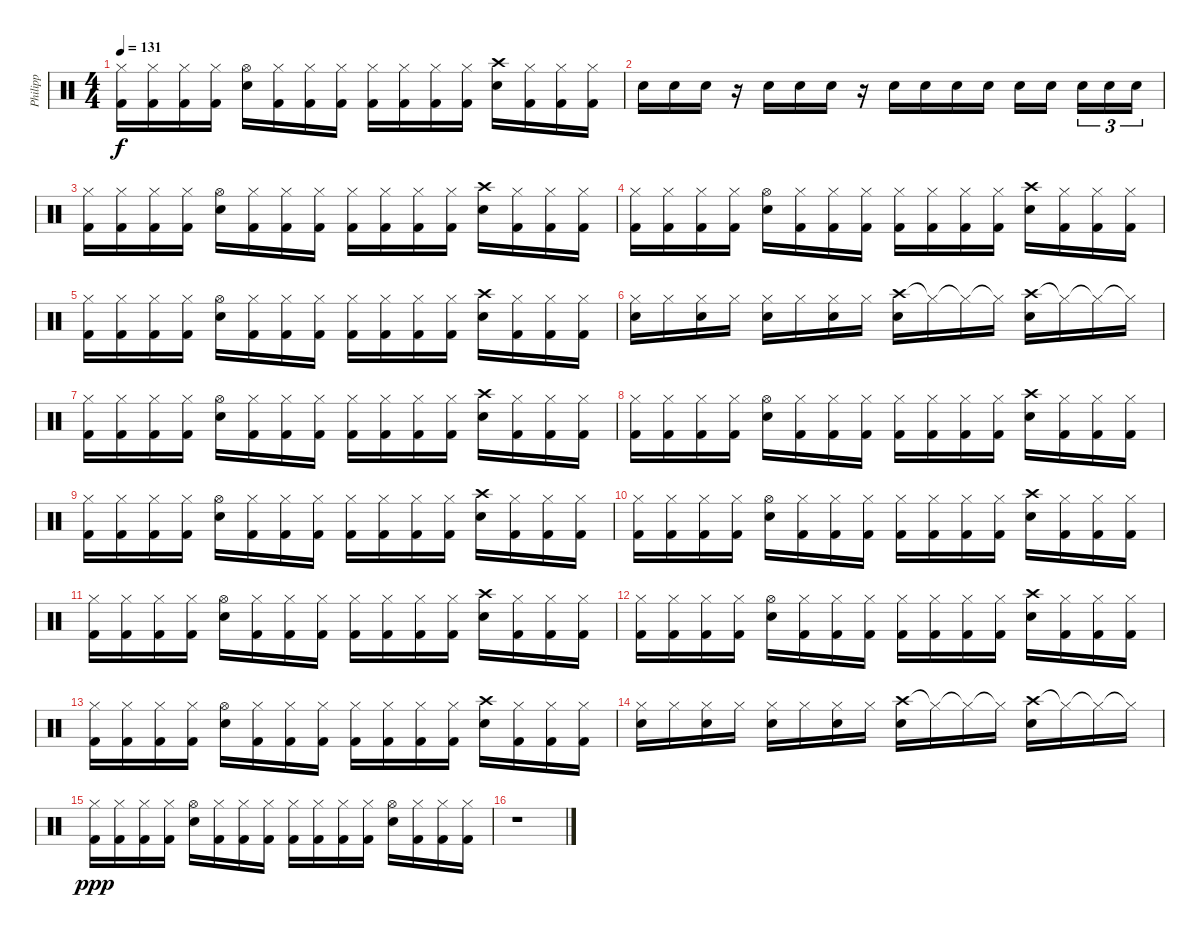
\track ("Philipp" "Philipp") {instrument percussion}
\staff {score}
\articulation defaults
\ts (4 4)
\tempo 131
\clef neutral
\ks c
("Hi-Hat (closed)" "Kick (hit) 2").16{dy f} ("Hi-Hat (closed)" "Kick (hit) 2").16 ("Hi-Hat (closed)" "Kick (hit) 2").16 ("Hi-Hat (closed)" "Kick (hit) 2").16 ("Hi-Hat (open)" "Electric Snare (hit)").16 ("Hi-Hat (closed)" "Kick (hit) 2").16 ("Hi-Hat (closed)" "Kick (hit) 2").16 ("Hi-Hat (closed)" "Kick (hit) 2").16 ("Hi-Hat (closed)" "Kick (hit) 2").16 ("Hi-Hat (closed)" "Kick (hit) 2").16 ("Hi-Hat (closed)" "Kick (hit) 2").16 ("Hi-Hat (closed)" "Kick (hit) 2").16 ("Crash high (hit)" "Electric Snare (hit)").16 ("Hi-Hat (closed)" "Kick (hit) 2").16 ("Hi-Hat (closed)" "Kick (hit) 2").16 ("Hi-Hat (closed)" "Kick (hit) 2").16 |
"Electric Snare (hit)".16 "Electric Snare (hit)".16 "Electric Snare (hit)".16 r.16 "Electric Snare (hit)".16 "Electric Snare (hit)".16 "Electric Snare (hit)".16 r.16 "Electric Snare (hit)".16 "Electric Snare (hit)".16 "Electric Snare (hit)".16 "Electric Snare (hit)".16 "Electric Snare (hit)".16 "Electric Snare (hit)".16 "Electric Snare (hit)".16{tu (3 2)} "Electric Snare (hit)".16{tu (3 2)} "Electric Snare (hit)".16{tu (3 2)} |
("Hi-Hat (closed)" "Kick (hit) 2").16 ("Hi-Hat (closed)" "Kick (hit) 2").16 ("Hi-Hat (closed)" "Kick (hit) 2").16 ("Hi-Hat (closed)" "Kick (hit) 2").16 ("Hi-Hat (open)" "Electric Snare (hit)").16 ("Hi-Hat (closed)" "Kick (hit) 2").16 ("Hi-Hat (closed)" "Kick (hit) 2").16 ("Hi-Hat (closed)" "Kick (hit) 2").16 ("Hi-Hat (closed)" "Kick (hit) 2").16 ("Hi-Hat (closed)" "Kick (hit) 2").16 ("Hi-Hat (closed)" "Kick (hit) 2").16 ("Hi-Hat (closed)" "Kick (hit) 2").16 ("Crash high (hit)" "Electric Snare (hit)").16 ("Hi-Hat (closed)" "Kick (hit) 2").16 ("Hi-Hat (closed)" "Kick (hit) 2").16 ("Hi-Hat (closed)" "Kick (hit) 2").16 |
("Hi-Hat (closed)" "Kick (hit) 2").16 ("Hi-Hat (closed)" "Kick (hit) 2").16 ("Hi-Hat (closed)" "Kick (hit) 2").16 ("Hi-Hat (closed)" "Kick (hit) 2").16 ("Hi-Hat (open)" "Electric Snare (hit)").16 ("Hi-Hat (closed)" "Kick (hit) 2").16 ("Hi-Hat (closed)" "Kick (hit) 2").16 ("Hi-Hat (closed)" "Kick (hit) 2").16 ("Hi-Hat (closed)" "Kick (hit) 2").16 ("Hi-Hat (closed)" "Kick (hit) 2").16 ("Hi-Hat (closed)" "Kick (hit) 2").16 ("Hi-Hat (closed)" "Kick (hit) 2").16 ("Crash high (hit)" "Electric Snare (hit)").16 ("Hi-Hat (closed)" "Kick (hit) 2").16 ("Hi-Hat (closed)" "Kick (hit) 2").16 ("Hi-Hat (closed)" "Kick (hit) 2").16 |
("Hi-Hat (closed)" "Kick (hit) 2").16 ("Hi-Hat (closed)" "Kick (hit) 2").16 ("Hi-Hat (closed)" "Kick (hit) 2").16 ("Hi-Hat (closed)" "Kick (hit) 2").16 ("Hi-Hat (open)" "Electric Snare (hit)").16 ("Hi-Hat (closed)" "Kick (hit) 2").16 ("Hi-Hat (closed)" "Kick (hit) 2").16 ("Hi-Hat (closed)" "Kick (hit) 2").16 ("Hi-Hat (closed)" "Kick (hit) 2").16 ("Hi-Hat (closed)" "Kick (hit) 2").16 ("Hi-Hat (closed)" "Kick (hit) 2").16 ("Hi-Hat (closed)" "Kick (hit) 2").16 ("Crash high (hit)" "Electric Snare (hit)").16 ("Hi-Hat (closed)" "Kick (hit) 2").16 ("Hi-Hat (closed)" "Kick (hit) 2").16 ("Hi-Hat (closed)" "Kick (hit) 2").16 |
("Hi-Hat (closed)" "Electric Snare (hit)").16 "Hi-Hat (closed)".16 ("Hi-Hat (closed)" "Electric Snare (hit)").16 "Hi-Hat (closed)".16 ("Hi-Hat (closed)" "Electric Snare (hit)").16 "Hi-Hat (closed)".16 ("Hi-Hat (closed)" "Electric Snare (hit)").16 "Hi-Hat (closed)".16 ("Crash high (hit)" "Electric Snare (hit)").16 "Hi-Hat (closed)"{t}.16 "Hi-Hat (closed)"{t}.16 "Hi-Hat (closed)"{t}.16 ("Crash high (hit)" "Electric Snare (hit)").16 "Hi-Hat (closed)"{t}.16 "Hi-Hat (closed)"{t}.16 "Hi-Hat (closed)"{t}.16 |
("Hi-Hat (closed)" "Kick (hit) 2").16{volume 10} ("Hi-Hat (closed)" "Kick (hit) 2").16 ("Hi-Hat (closed)" "Kick (hit) 2").16 ("Hi-Hat (closed)" "Kick (hit) 2").16 ("Hi-Hat (open)" "Electric Snare (hit)").16 ("Hi-Hat (closed)" "Kick (hit) 2").16 ("Hi-Hat (closed)" "Kick (hit) 2").16 ("Hi-Hat (closed)" "Kick (hit) 2").16 ("Hi-Hat (closed)" "Kick (hit) 2").16 ("Hi-Hat (closed)" "Kick (hit) 2").16 ("Hi-Hat (closed)" "Kick (hit) 2").16 ("Hi-Hat (closed)" "Kick (hit) 2").16 ("Crash high (hit)" "Electric Snare (hit)").16 ("Hi-Hat (closed)" "Kick (hit) 2").16 ("Hi-Hat (closed)" "Kick (hit) 2").16 ("Hi-Hat (closed)" "Kick (hit) 2").16 |
("Hi-Hat (closed)" "Kick (hit) 2").16{volume 7} ("Hi-Hat (closed)" "Kick (hit) 2").16 ("Hi-Hat (closed)" "Kick (hit) 2").16 ("Hi-Hat (closed)" "Kick (hit) 2").16 ("Hi-Hat (open)" "Electric Snare (hit)").16 ("Hi-Hat (closed)" "Kick (hit) 2").16 ("Hi-Hat (closed)" "Kick (hit) 2").16 ("Hi-Hat (closed)" "Kick (hit) 2").16 ("Hi-Hat (closed)" "Kick (hit) 2").16 ("Hi-Hat (closed)" "Kick (hit) 2").16 ("Hi-Hat (closed)" "Kick (hit) 2").16 ("Hi-Hat (closed)" "Kick (hit) 2").16 ("Crash high (hit)" "Electric Snare (hit)").16 ("Hi-Hat (closed)" "Kick (hit) 2").16 ("Hi-Hat (closed)" "Kick (hit) 2").16 ("Hi-Hat (closed)" "Kick (hit) 2").16 |
("Hi-Hat (closed)" "Kick (hit) 2").16{volume 4} ("Hi-Hat (closed)" "Kick (hit) 2").16 ("Hi-Hat (closed)" "Kick (hit) 2").16 ("Hi-Hat (closed)" "Kick (hit) 2").16 ("Hi-Hat (open)" "Electric Snare (hit)").16 ("Hi-Hat (closed)" "Kick (hit) 2").16 ("Hi-Hat (closed)" "Kick (hit) 2").16 ("Hi-Hat (closed)" "Kick (hit) 2").16 ("Hi-Hat (closed)" "Kick (hit) 2").16 ("Hi-Hat (closed)" "Kick (hit) 2").16 ("Hi-Hat (closed)" "Kick (hit) 2").16 ("Hi-Hat (closed)" "Kick (hit) 2").16 ("Crash high (hit)" "Electric Snare (hit)").16 ("Hi-Hat (closed)" "Kick (hit) 2").16 ("Hi-Hat (closed)" "Kick (hit) 2").16 ("Hi-Hat (closed)" "Kick (hit) 2").16 |
("Hi-Hat (closed)" "Kick (hit) 2").16{volume 2} ("Hi-Hat (closed)" "Kick (hit) 2").16 ("Hi-Hat (closed)" "Kick (hit) 2").16 ("Hi-Hat (closed)" "Kick (hit) 2").16 ("Hi-Hat (open)" "Electric Snare (hit)").16 ("Hi-Hat (closed)" "Kick (hit) 2").16 ("Hi-Hat (closed)" "Kick (hit) 2").16 ("Hi-Hat (closed)" "Kick (hit) 2").16 ("Hi-Hat (closed)" "Kick (hit) 2").16 ("Hi-Hat (closed)" "Kick (hit) 2").16 ("Hi-Hat (closed)" "Kick (hit) 2").16 ("Hi-Hat (closed)" "Kick (hit) 2").16 ("Crash high (hit)" "Electric Snare (hit)").16 ("Hi-Hat (closed)" "Kick (hit) 2").16 ("Hi-Hat (closed)" "Kick (hit) 2").16 ("Hi-Hat (closed)" "Kick (hit) 2").16 |
("Hi-Hat (closed)" "Kick (hit) 2").16 ("Hi-Hat (closed)" "Kick (hit) 2").16 ("Hi-Hat (closed)" "Kick (hit) 2").16 ("Hi-Hat (closed)" "Kick (hit) 2").16 ("Hi-Hat (open)" "Electric Snare (hit)").16 ("Hi-Hat (closed)" "Kick (hit) 2").16 ("Hi-Hat (closed)" "Kick (hit) 2").16 ("Hi-Hat (closed)" "Kick (hit) 2").16 ("Hi-Hat (closed)" "Kick (hit) 2").16 ("Hi-Hat (closed)" "Kick (hit) 2").16 ("Hi-Hat (closed)" "Kick (hit) 2").16 ("Hi-Hat (closed)" "Kick (hit) 2").16 ("Crash high (hit)" "Electric Snare (hit)").16 ("Hi-Hat (closed)" "Kick (hit) 2").16 ("Hi-Hat (closed)" "Kick (hit) 2").16 ("Hi-Hat (closed)" "Kick (hit) 2").16 |
("Hi-Hat (closed)" "Kick (hit) 2").16 ("Hi-Hat (closed)" "Kick (hit) 2").16 ("Hi-Hat (closed)" "Kick (hit) 2").16 ("Hi-Hat (closed)" "Kick (hit) 2").16 ("Hi-Hat (open)" "Electric Snare (hit)").16 ("Hi-Hat (closed)" "Kick (hit) 2").16 ("Hi-Hat (closed)" "Kick (hit) 2").16 ("Hi-Hat (closed)" "Kick (hit) 2").16 ("Hi-Hat (closed)" "Kick (hit) 2").16 ("Hi-Hat (closed)" "Kick (hit) 2").16 ("Hi-Hat (closed)" "Kick (hit) 2").16 ("Hi-Hat (closed)" "Kick (hit) 2").16 ("Crash high (hit)" "Electric Snare (hit)").16 ("Hi-Hat (closed)" "Kick (hit) 2").16 ("Hi-Hat (closed)" "Kick (hit) 2").16 ("Hi-Hat (closed)" "Kick (hit) 2").16 |
("Hi-Hat (closed)" "Kick (hit) 2").16 ("Hi-Hat (closed)" "Kick (hit) 2").16 ("Hi-Hat (closed)" "Kick (hit) 2").16 ("Hi-Hat (closed)" "Kick (hit) 2").16 ("Hi-Hat (open)" "Electric Snare (hit)").16 ("Hi-Hat (closed)" "Kick (hit) 2").16 ("Hi-Hat (closed)" "Kick (hit) 2").16 ("Hi-Hat (closed)" "Kick (hit) 2").16 ("Hi-Hat (closed)" "Kick (hit) 2").16 ("Hi-Hat (closed)" "Kick (hit) 2").16 ("Hi-Hat (closed)" "Kick (hit) 2").16 ("Hi-Hat (closed)" "Kick (hit) 2").16 ("Crash high (hit)" "Electric Snare (hit)").16 ("Hi-Hat (closed)" "Kick (hit) 2").16 ("Hi-Hat (closed)" "Kick (hit) 2").16 ("Hi-Hat (closed)" "Kick (hit) 2").16 |
("Hi-Hat (closed)" "Electric Snare (hit)").16 "Hi-Hat (closed)".16 ("Hi-Hat (closed)" "Electric Snare (hit)").16 "Hi-Hat (closed)".16 ("Hi-Hat (closed)" "Electric Snare (hit)").16 "Hi-Hat (closed)".16 ("Hi-Hat (closed)" "Electric Snare (hit)").16 "Hi-Hat (closed)".16 ("Crash high (hit)" "Electric Snare (hit)").16 "Hi-Hat (closed)"{t}.16 "Hi-Hat (closed)"{t}.16 "Hi-Hat (closed)"{t}.16 ("Crash high (hit)" "Electric Snare (hit)").16 "Hi-Hat (closed)"{t}.16 "Hi-Hat (closed)"{t}.16 "Hi-Hat (closed)"{t}.16 |
("Hi-Hat (closed)" "Kick (hit) 2").16{dy ppp volume 3} ("Hi-Hat (closed)" "Kick (hit) 2").16 ("Hi-Hat (closed)" "Kick (hit) 2").16 ("Hi-Hat (closed)" "Kick (hit) 2").16 ("Hi-Hat (open)" "Electric Snare (hit)").16 ("Hi-Hat (closed)" "Kick (hit) 2").16 ("Hi-Hat (closed)" "Kick (hit) 2").16 ("Hi-Hat (closed)" "Kick (hit) 2").16 ("Hi-Hat (closed)" "Kick (hit) 2").16 ("Hi-Hat (closed)" "Kick (hit) 2").16 ("Hi-Hat (closed)" "Kick (hit) 2").16 ("Hi-Hat (closed)" "Kick (hit) 2").16 ("Hi-Hat (open)" "Electric Snare (hit)").16 ("Hi-Hat (closed)" "Kick (hit) 2").16 ("Hi-Hat (closed)" "Kick (hit) 2").16 ("Hi-Hat (closed)" "Kick (hit) 2").16 |
r.1
